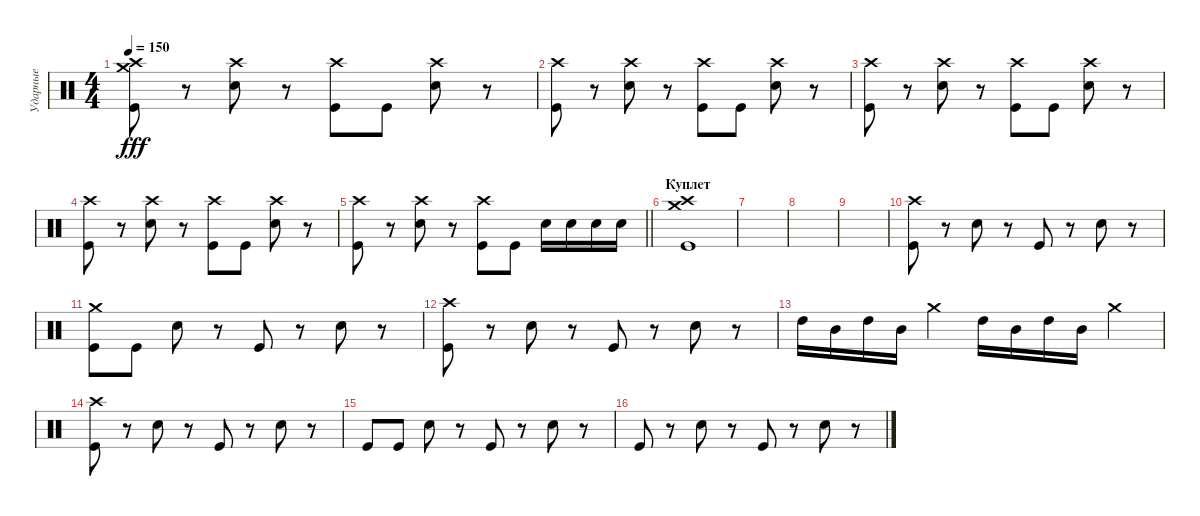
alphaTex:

\track ("Ударные" "Ударные") {instrument percussion}
\staff {score}
\articulation defaults
\ts (4 4)
\tempo 150
\clef neutral
\ks c
("Crash medium (hit)" "Kick (hit)" "Crash high (hit)").8{dy fff} r.8 ("Crash high (hit)" "Electric Snare (hit)").8 r.8 ("Crash high (hit)" "Kick (hit)").8 "Kick (hit)".8 ("Crash high (hit)" "Electric Snare (hit)").8 r.8 |
("Crash high (hit)" "Kick (hit)").8 r.8 ("Crash high (hit)" "Electric Snare (hit)").8 r.8 ("Crash high (hit)" "Kick (hit)").8 "Kick (hit)".8 ("Crash high (hit)" "Electric Snare (hit)").8 r.8 |
("Crash high (hit)" "Kick (hit)").8 r.8 ("Crash high (hit)" "Electric Snare (hit)").8 r.8 ("Crash high (hit)" "Kick (hit)").8 "Kick (hit)".8 ("Crash high (hit)" "Electric Snare (hit)").8 r.8 |
("Crash high (hit)" "Kick (hit)").8 r.8 ("Crash high (hit)" "Electric Snare (hit)").8 r.8 ("Crash high (hit)" "Kick (hit)").8 "Kick (hit)".8 ("Crash high (hit)" "Electric Snare (hit)").8 r.8 |
\barLineRight lightlight
("Crash high (hit)" "Kick (hit)").8 r.8 ("Crash high (hit)" "Electric Snare (hit)").8 r.8 ("Crash high (hit)" "Kick (hit)").8 "Kick (hit)".8 "Electric Snare (hit)".16 "Electric Snare (hit)".16 "Electric Snare (hit)".16 "Electric Snare (hit)".16 |
\section ("" "Куплет")
("Crash high (hit)" "Kick (hit)" "Crash medium (hit)").1 |
|
|
|
("Crash high (hit)" "Kick (hit)").8 r.8 "Electric Snare (hit)".8 r.8 "Kick (hit)".8 r.8 "Electric Snare (hit)".8 r.8 |
("Crash medium (hit)" "Kick (hit)").8 "Kick (hit)".8 "Electric Snare (hit)".8 r.8 "Kick (hit)".8 r.8 "Electric Snare (hit)".8 r.8 |
("Crash high (hit)" "Kick (hit)").8 r.8 "Electric Snare (hit)".8 r.8 "Kick (hit)".8 r.8 "Electric Snare (hit)".8 r.8 |
"High Tom (hit)".16 "Mid Tom (hit)".16 "High Tom (hit)".16 "Mid Tom (hit)".16 "Crash medium (hit)".4 "High Tom (hit)".16 "Mid Tom (hit)".16 "High Tom (hit)".16 "Mid Tom (hit)".16 "Crash medium (hit)".4 |
("Crash high (hit)" "Kick (hit)").8 r.8 "Electric Snare (hit)".8 r.8 "Kick (hit)".8 r.8 "Electric Snare (hit)".8 r.8 |
"Kick (hit)".8 "Kick (hit)".8 "Electric Snare (hit)".8 r.8 "Kick (hit)".8 r.8 "Electric Snare (hit)".8 r.8 |
"Kick (hit)".8 r.8 "Electric Snare (hit)".8 r.8 "Kick (hit)".8 r.8 "Electric Snare (hit)".8 r.8
